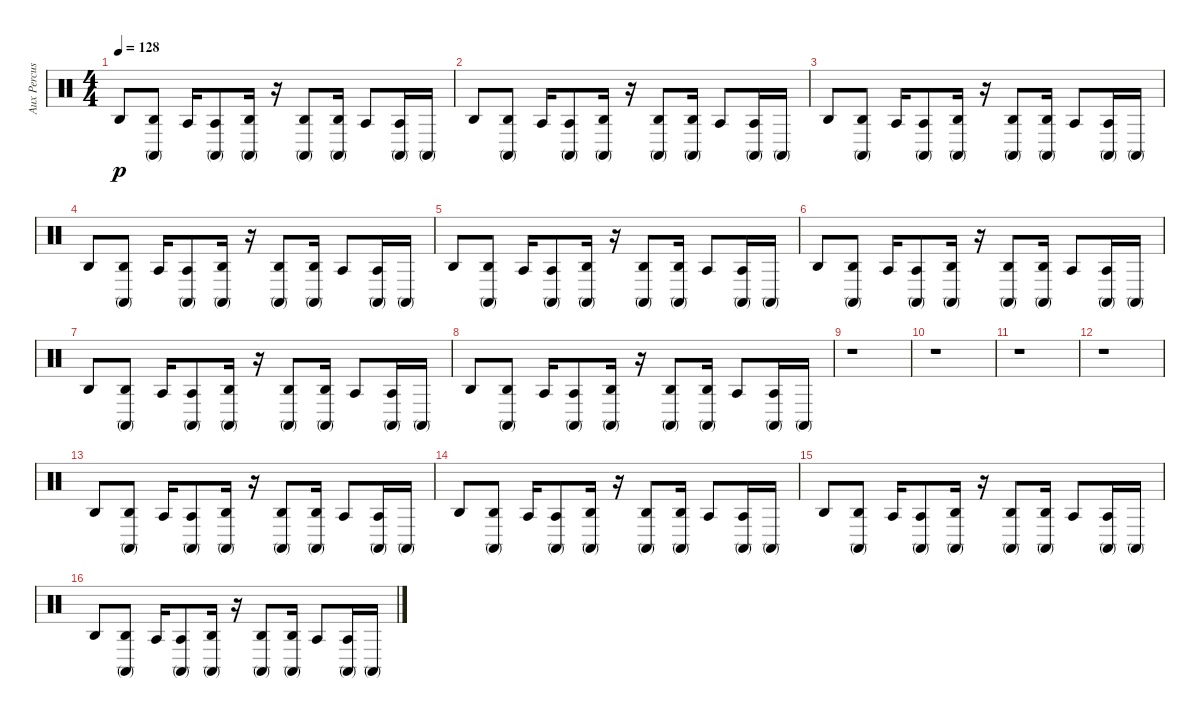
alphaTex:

\track ("Aux Percussion" "Aux Percus") {instrument percussion}
\staff {score}
\articulation defaults
\ts (4 4)
\tempo 128
\clef neutral
\ks c "Agogo high (hit)".8{dy p}
("Agogo high (hit)" "Conga high (mute)").8 "Agogo tow (hit)".16 ("Agogo tow (hit)" "Conga high (mute)").8 ("Conga high (mute)" "Agogo high (hit)").16 r.16 ("Conga high (mute)" "Agogo high (hit)").8 ("Agogo high (hit)" "Conga high (mute)").16 "Agogo tow (hit)".8 ("Conga high (mute)" "Agogo tow (hit)").16 "Conga high (mute)".16 |
"Agogo high (hit)".8 ("Conga high (mute)" "Agogo high (hit)").8 "Agogo tow (hit)".16 ("Agogo tow (hit)" "Conga high (mute)").8 ("Agogo high (hit)" "Conga high (mute)").16 r.16 ("Conga high (mute)" "Agogo high (hit)").8 ("Conga high (mute)" "Agogo high (hit)").16 "Agogo tow (hit)".8 ("Agogo tow (hit)" "Conga high (mute)").16 "Conga high (mute)".16 |
"Agogo high (hit)".8 ("Conga high (mute)" "Agogo high (hit)").8 "Agogo tow (hit)".16 ("Conga high (mute)" "Agogo tow (hit)").8 ("Agogo high (hit)" "Conga high (mute)").16 r.16 ("Agogo high (hit)" "Conga high (mute)").8 ("Conga high (mute)" "Agogo high (hit)").16 "Agogo tow (hit)".8 ("Agogo tow (hit)" "Conga high (mute)").16 "Conga high (mute)".16 |
"Agogo high (hit)".8 ("Agogo high (hit)" "Conga high (mute)").8 "Agogo tow (hit)".16 ("Conga high (mute)" "Agogo tow (hit)").8 ("Conga high (mute)" "Agogo high (hit)").16 r.16 ("Conga high (mute)" "Agogo high (hit)").8 ("Agogo high (hit)" "Conga high (mute)").16 "Agogo tow (hit)".8 ("Conga high (mute)" "Agogo tow (hit)").16 "Conga high (mute)".16 |
"Agogo high (hit)".8 ("Agogo high (hit)" "Conga high (mute)").8 "Agogo tow (hit)".16 ("Agogo tow (hit)" "Conga high (mute)").8 ("Conga high (mute)" "Agogo high (hit)").16 r.16 ("Conga high (mute)" "Agogo high (hit)").8 ("Agogo high (hit)" "Conga high (mute)").16 "Agogo tow (hit)".8 ("Conga high (mute)" "Agogo tow (hit)").16 "Conga high (mute)".16 |
"Agogo high (hit)".8 ("Conga high (mute)" "Agogo high (hit)").8 "Agogo tow (hit)".16 ("Agogo tow (hit)" "Conga high (mute)").8 ("Agogo high (hit)" "Conga high (mute)").16 r.16 ("Agogo high (hit)" "Conga high (mute)").8 ("Conga high (mute)" "Agogo high (hit)").16 "Agogo tow (hit)".8 ("Agogo tow (hit)" "Conga high (mute)").16 "Conga high (mute)".16 |
"Agogo high (hit)".8 ("Conga high (mute)" "Agogo high (hit)").8 "Agogo tow (hit)".16 ("Conga high (mute)" "Agogo tow (hit)").8 ("Agogo high (hit)" "Conga high (mute)").16 r.16 ("Agogo high (hit)" "Conga high (mute)").8 ("Conga high (mute)" "Agogo high (hit)").16 "Agogo tow (hit)".8 ("Agogo tow (hit)" "Conga high (mute)").16 "Conga high (mute)".16 |
"Agogo high (hit)".8 ("Conga high (mute)" "Agogo high (hit)").8 "Agogo tow (hit)".16 ("Conga high (mute)" "Agogo tow (hit)").8 ("Agogo high (hit)" "Conga high (mute)").16 r.16 ("Agogo high (hit)" "Conga high (mute)").8 ("Conga high (mute)" "Agogo high (hit)").16 "Agogo tow (hit)".8 ("Agogo tow (hit)" "Conga high (mute)").16 "Conga high (mute)".16 |
r.1 |
r.1 |
r.1 |
r.1 |
"Agogo high (hit)".8 ("Conga high (mute)" "Agogo high (hit)").8 "Agogo tow (hit)".16 ("Conga high (mute)" "Agogo tow (hit)").8 ("Agogo high (hit)" "Conga high (mute)").16 r.16 ("Agogo high (hit)" "Conga high (mute)").8 ("Conga high (mute)" "Agogo high (hit)").16 "Agogo tow (hit)".8 ("Agogo tow (hit)" "Conga high (mute)").16 "Conga high (mute)".16 |
"Agogo high (hit)".8 ("Conga high (mute)" "Agogo high (hit)").8 "Agogo tow (hit)".16 ("Conga high (mute)" "Agogo tow (hit)").8 ("Agogo high (hit)" "Conga high (mute)").16 r.16 ("Agogo high (hit)" "Conga high (mute)").8 ("Conga high (mute)" "Agogo high (hit)").16 "Agogo tow (hit)".8 ("Agogo tow (hit)" "Conga high (mute)").16 "Conga high (mute)".16 |
"Agogo high (hit)".8 ("Conga high (mute)" "Agogo high (hit)").8 "Agogo tow (hit)".16 ("Conga high (mute)" "Agogo tow (hit)").8 ("Agogo high (hit)" "Conga high (mute)").16 r.16 ("Agogo high (hit)" "Conga high (mute)").8 ("Conga high (mute)" "Agogo high (hit)").16 "Agogo tow (hit)".8 ("Agogo tow (hit)" "Conga high (mute)").16 "Conga high (mute)".16 |
"Agogo high (hit)".8 ("Agogo high (hit)" "Conga high (mute)").8 "Agogo tow (hit)".16 ("Agogo tow (hit)" "Conga high (mute)").8 ("Conga high (mute)" "Agogo high (hit)").16 r.16 ("Agogo high (hit)" "Conga high (mute)").8 ("Conga high (mute)" "Agogo high (hit)").16 "Agogo tow (hit)".8 ("Agogo tow (hit)" "Conga high (mute)").16 "Conga high (mute)".16
